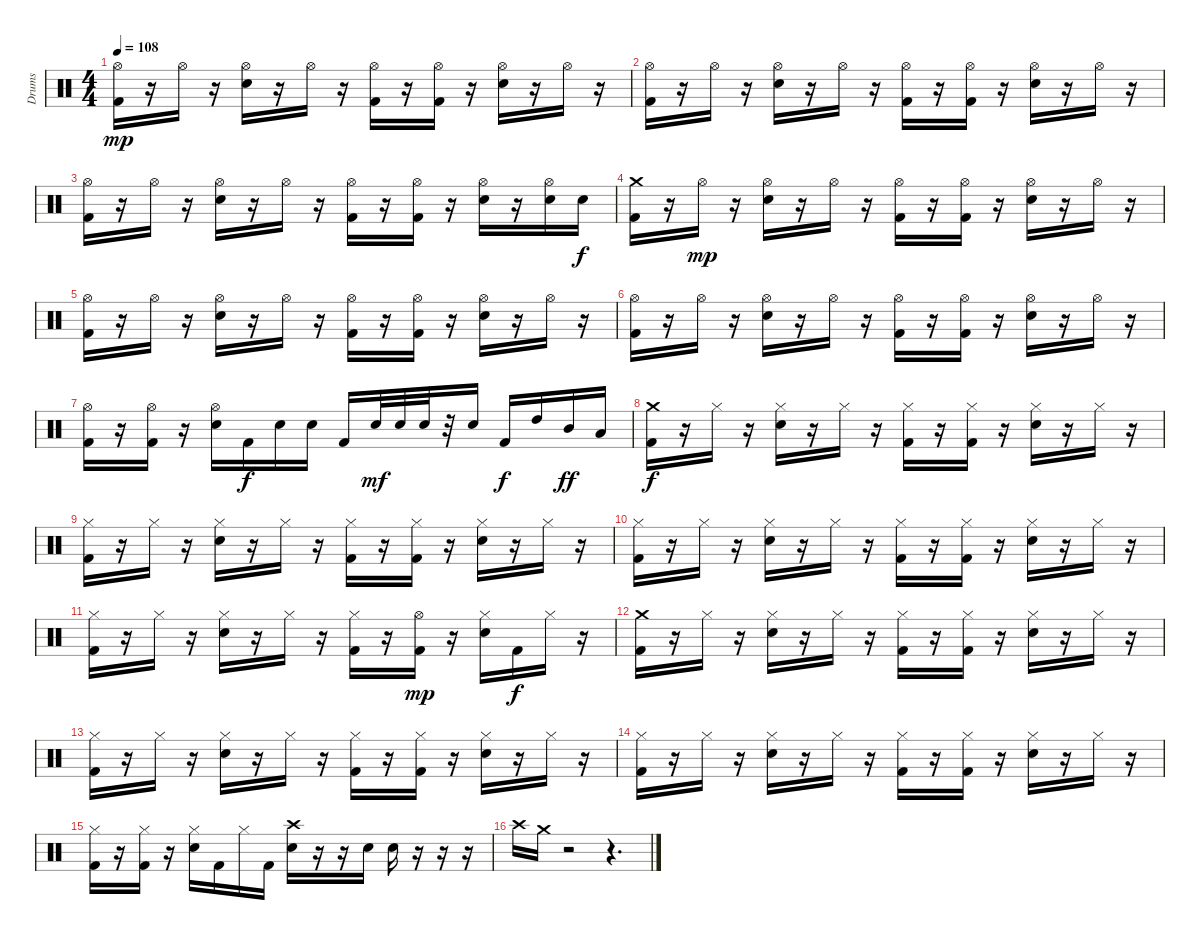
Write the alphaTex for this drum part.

\track ("Drums" "Drums") {instrument percussion}
\staff {score}
\articulation defaults
\ts (4 4)
\tempo 108
\clef neutral
\ks c
("Hi-Hat (open)" "Kick (hit) 2").16{dy mp} r.16 "Hi-Hat (open)".16 r.16 ("Hi-Hat (open)" "Snare (hit) 2").16 r.16 "Hi-Hat (open)".16 r.16 ("Hi-Hat (open)" "Kick (hit) 2").16 r.16 ("Hi-Hat (open)" "Kick (hit) 2").16 r.16 ("Hi-Hat (open)" "Snare (hit) 2").16 r.16 "Hi-Hat (open)".16 r.16 |
("Hi-Hat (open)" "Kick (hit) 2").16 r.16 "Hi-Hat (open)".16 r.16 ("Hi-Hat (open)" "Snare (hit) 2").16 r.16 "Hi-Hat (open)".16 r.16 ("Hi-Hat (open)" "Kick (hit) 2").16 r.16 ("Hi-Hat (open)" "Kick (hit) 2").16 r.16 ("Hi-Hat (open)" "Snare (hit) 2").16 r.16 "Hi-Hat (open)".16 r.16 |
("Hi-Hat (open)" "Kick (hit) 2").16 r.16 "Hi-Hat (open)".16 r.16 ("Hi-Hat (open)" "Snare (hit) 2").16 r.16 "Hi-Hat (open)".16 r.16 ("Hi-Hat (open)" "Kick (hit) 2").16 r.16 ("Hi-Hat (open)" "Kick (hit) 2").16 r.16 ("Hi-Hat (open)" "Snare (hit) 2").16 r.16 ("Hi-Hat (open)" "Snare (hit) 2").16 "Snare (hit) 2".16{dy f} |
("Crash medium (hit)" "Kick (hit) 2").16 r.16 "Hi-Hat (open)".16{dy mp} r.16 ("Hi-Hat (open)" "Snare (hit) 2").16 r.16 "Hi-Hat (open)".16 r.16 ("Hi-Hat (open)" "Kick (hit) 2").16 r.16 ("Hi-Hat (open)" "Kick (hit) 2").16 r.16 ("Hi-Hat (open)" "Snare (hit) 2").16 r.16 "Hi-Hat (open)".16 r.16 |
("Hi-Hat (open)" "Kick (hit) 2").16 r.16 "Hi-Hat (open)".16 r.16 ("Hi-Hat (open)" "Snare (hit) 2").16 r.16 "Hi-Hat (open)".16 r.16 ("Hi-Hat (open)" "Kick (hit) 2").16 r.16 ("Hi-Hat (open)" "Kick (hit) 2").16 r.16 ("Hi-Hat (open)" "Snare (hit) 2").16 r.16 "Hi-Hat (open)".16 r.16 |
("Hi-Hat (open)" "Kick (hit) 2").16 r.16 "Hi-Hat (open)".16 r.16 ("Hi-Hat (open)" "Snare (hit) 2").16 r.16 "Hi-Hat (open)".16 r.16 ("Hi-Hat (open)" "Kick (hit) 2").16 r.16 ("Hi-Hat (open)" "Kick (hit) 2").16 r.16 ("Hi-Hat (open)" "Snare (hit) 2").16 r.16 "Hi-Hat (open)".16 r.16 |
("Hi-Hat (open)" "Kick (hit) 2").16 r.16 ("Hi-Hat (open)" "Kick (hit) 2").16 r.16 ("Hi-Hat (open)" "Snare (hit) 2").16 "Kick (hit) 2".16{dy f} "Snare (hit) 2".16 "Snare (hit) 2".16 "Kick (hit) 2".16 "Snare (hit) 2".32{dy mf} "Snare (hit) 2".32 "Snare (hit) 2".32 r.32 "Snare (hit) 2".16 "Kick (hit) 2".16{dy f} "High Tom (hit)".16 "Mid Tom (hit)".16{dy ff} "Low Tom (hit)".16 |
("Crash medium (hit)" "Kick (hit) 2").16{dy f} r.16 "Hi-Hat (closed)".16 r.16 ("Hi-Hat (closed)" "Snare (hit) 2").16 r.16 "Hi-Hat (closed)".16 r.16 ("Hi-Hat (closed)" "Kick (hit) 2").16 r.16 ("Hi-Hat (closed)" "Kick (hit) 2").16 r.16 ("Hi-Hat (closed)" "Snare (hit) 2").16 r.16 "Hi-Hat (closed)".16 r.16 |
("Hi-Hat (closed)" "Kick (hit) 2").16 r.16 "Hi-Hat (closed)".16 r.16 ("Hi-Hat (closed)" "Snare (hit) 2").16 r.16 "Hi-Hat (closed)".16 r.16 ("Hi-Hat (closed)" "Kick (hit) 2").16 r.16 ("Hi-Hat (closed)" "Kick (hit) 2").16 r.16 ("Hi-Hat (closed)" "Snare (hit) 2").16 r.16 "Hi-Hat (closed)".16 r.16 |
("Hi-Hat (closed)" "Kick (hit) 2").16 r.16 "Hi-Hat (closed)".16 r.16 ("Hi-Hat (closed)" "Snare (hit) 2").16 r.16 "Hi-Hat (closed)".16 r.16 ("Hi-Hat (closed)" "Kick (hit) 2").16 r.16 ("Hi-Hat (closed)" "Kick (hit) 2").16 r.16 ("Hi-Hat (closed)" "Snare (hit) 2").16 r.16 "Hi-Hat (closed)".16 r.16 |
("Hi-Hat (closed)" "Kick (hit) 2").16 r.16 "Hi-Hat (closed)".16 r.16 ("Hi-Hat (closed)" "Snare (hit) 2").16 r.16 "Hi-Hat (closed)".16 r.16 ("Hi-Hat (closed)" "Kick (hit) 2").16 r.16 ("Hi-Hat (open)" "Kick (hit) 2").16{dy mp} r.16 ("Hi-Hat (closed)" "Snare (hit) 2").16 "Kick (hit) 2".16{dy f} "Hi-Hat (closed)".16 r.16 |
("Crash medium (hit)" "Kick (hit) 2").16 r.16 "Hi-Hat (closed)".16 r.16 ("Hi-Hat (closed)" "Snare (hit) 2").16 r.16 "Hi-Hat (closed)".16 r.16 ("Hi-Hat (closed)" "Kick (hit) 2").16 r.16 ("Hi-Hat (closed)" "Kick (hit) 2").16 r.16 ("Hi-Hat (closed)" "Snare (hit) 2").16 r.16 "Hi-Hat (closed)".16 r.16 |
("Hi-Hat (closed)" "Kick (hit) 2").16 r.16 "Hi-Hat (closed)".16 r.16 ("Hi-Hat (closed)" "Snare (hit) 2").16 r.16 "Hi-Hat (closed)".16 r.16 ("Hi-Hat (closed)" "Kick (hit) 2").16 r.16 ("Hi-Hat (closed)" "Kick (hit) 2").16 r.16 ("Hi-Hat (closed)" "Snare (hit) 2").16 r.16 "Hi-Hat (closed)".16 r.16 |
("Hi-Hat (closed)" "Kick (hit) 2").16 r.16 "Hi-Hat (closed)".16 r.16 ("Hi-Hat (closed)" "Snare (hit) 2").16 r.16 "Hi-Hat (closed)".16 r.16 ("Hi-Hat (closed)" "Kick (hit) 2").16 r.16 ("Hi-Hat (closed)" "Kick (hit) 2").16 r.16 ("Hi-Hat (closed)" "Snare (hit) 2").16 r.16 "Hi-Hat (closed)".16 r.16 |
("Hi-Hat (closed)" "Kick (hit) 2").16 r.16 ("Hi-Hat (closed)" "Kick (hit) 2").16 r.16 ("Hi-Hat (closed)" "Snare (hit) 2").16 "Kick (hit) 2".16 "Hi-Hat (closed)".16 "Kick (hit) 2".16 ("Crash high (hit)" "Snare (hit) 2").16 r.16 r.16 "Snare (hit) 2".16 "Snare (hit) 2".16 r.16 r.16 r.16 |
"Crash high (hit)".16 "Crash medium (hit)".16 r.2 r.4{d}
